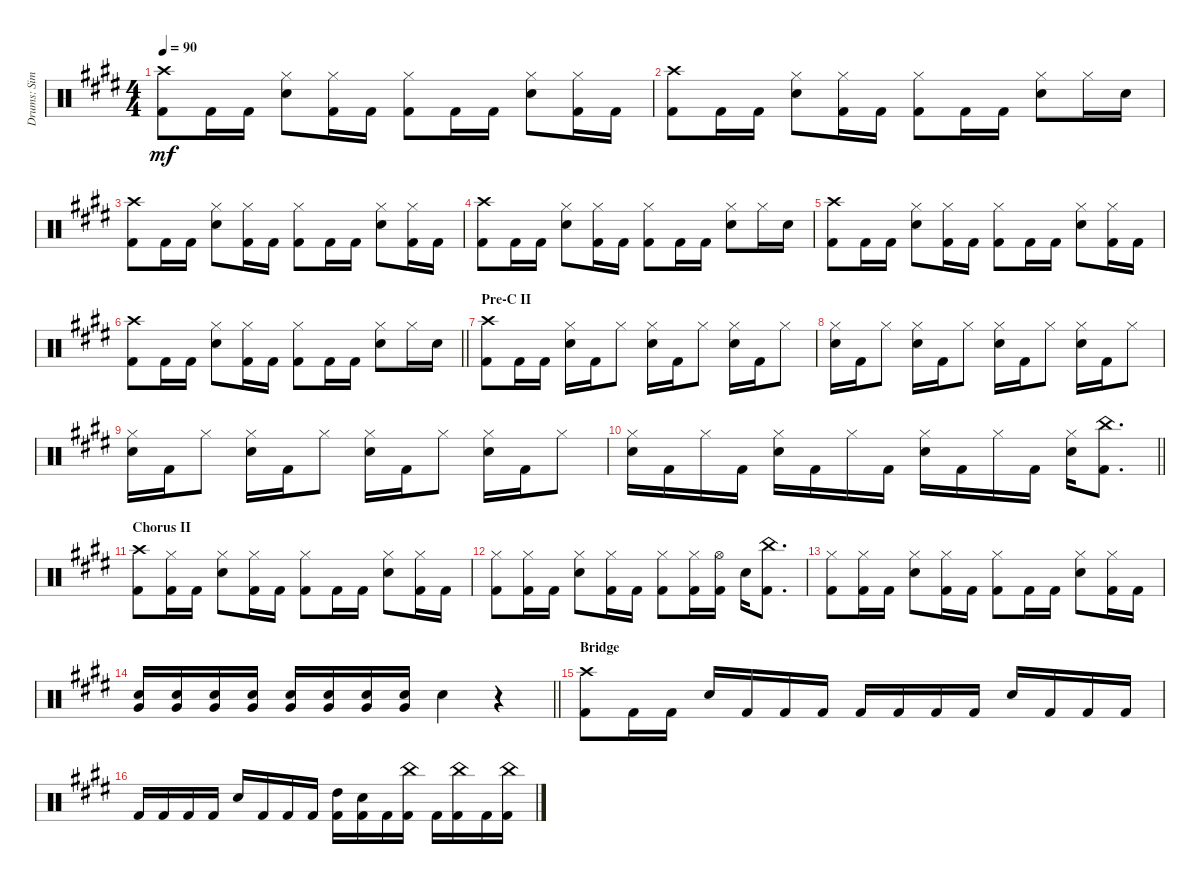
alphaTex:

\track ("Drums: Simon" "Drums: Sim") {instrument percussion}
\staff {score}
\articulation defaults
\ts (4 4)
\tempo 90
\clef neutral
\ks e
("Crash high (hit)" "Kick (hit) 2").8{dy mf} "Kick (hit) 2".16 "Kick (hit) 2".16 ("Hi-Hat (closed)" "Electric Snare (hit)").8 ("Hi-Hat (closed)" "Kick (hit) 2").16 "Kick (hit) 2".16 ("Hi-Hat (closed)" "Kick (hit) 2").8 "Kick (hit) 2".16 "Kick (hit) 2".16 ("Hi-Hat (closed)" "Electric Snare (hit)").8 ("Hi-Hat (closed)" "Kick (hit) 2").16 "Kick (hit) 2".16 |
("Crash high (hit)" "Kick (hit) 2").8 "Kick (hit) 2".16 "Kick (hit) 2".16 ("Hi-Hat (closed)" "Electric Snare (hit)").8 ("Hi-Hat (closed)" "Kick (hit) 2").16 "Kick (hit) 2".16 ("Hi-Hat (closed)" "Kick (hit) 2").8 "Kick (hit) 2".16 "Kick (hit) 2".16 ("Hi-Hat (closed)" "Electric Snare (hit)").8 "Hi-Hat (closed)".16 "Electric Snare (hit)".16 |
("Crash high (hit)" "Kick (hit) 2").8 "Kick (hit) 2".16 "Kick (hit) 2".16 ("Hi-Hat (closed)" "Electric Snare (hit)").8 ("Hi-Hat (closed)" "Kick (hit) 2").16 "Kick (hit) 2".16 ("Hi-Hat (closed)" "Kick (hit) 2").8 "Kick (hit) 2".16 "Kick (hit) 2".16 ("Hi-Hat (closed)" "Electric Snare (hit)").8 ("Hi-Hat (closed)" "Kick (hit) 2").16 "Kick (hit) 2".16 |
("Crash high (hit)" "Kick (hit) 2").8 "Kick (hit) 2".16 "Kick (hit) 2".16 ("Hi-Hat (closed)" "Electric Snare (hit)").8 ("Hi-Hat (closed)" "Kick (hit) 2").16 "Kick (hit) 2".16 ("Hi-Hat (closed)" "Kick (hit) 2").8 "Kick (hit) 2".16 "Kick (hit) 2".16 ("Hi-Hat (closed)" "Electric Snare (hit)").8 "Hi-Hat (closed)".16 "Electric Snare (hit)".16 |
("Crash high (hit)" "Kick (hit) 2").8 "Kick (hit) 2".16 "Kick (hit) 2".16 ("Hi-Hat (closed)" "Electric Snare (hit)").8 ("Hi-Hat (closed)" "Kick (hit) 2").16 "Kick (hit) 2".16 ("Hi-Hat (closed)" "Kick (hit) 2").8 "Kick (hit) 2".16 "Kick (hit) 2".16 ("Hi-Hat (closed)" "Electric Snare (hit)").8 ("Hi-Hat (closed)" "Kick (hit) 2").16 "Kick (hit) 2".16 |
\barLineRight lightlight
("Crash high (hit)" "Kick (hit) 2").8 "Kick (hit) 2".16 "Kick (hit) 2".16 ("Hi-Hat (closed)" "Electric Snare (hit)").8 ("Hi-Hat (closed)" "Kick (hit) 2").16 "Kick (hit) 2".16 ("Hi-Hat (closed)" "Kick (hit) 2").8 "Kick (hit) 2".16 "Kick (hit) 2".16 ("Hi-Hat (closed)" "Electric Snare (hit)").8 "Hi-Hat (closed)".16 "Electric Snare (hit)".16 |
\section ("" "Pre-C II")
("Crash high (hit)" "Kick (hit) 2").8 "Kick (hit) 2".16 "Kick (hit) 2".16 ("Hi-Hat (closed)" "Electric Snare (hit)").16 "Kick (hit) 2".16 "Hi-Hat (closed)".8 ("Hi-Hat (closed)" "Electric Snare (hit)").16 "Kick (hit) 2".16 "Hi-Hat (closed)".8 ("Hi-Hat (closed)" "Electric Snare (hit)").16 "Kick (hit) 2".16 "Hi-Hat (closed)".8 |
("Hi-Hat (closed)" "Electric Snare (hit)").16 "Kick (hit) 2".16 "Hi-Hat (closed)".8 ("Hi-Hat (closed)" "Electric Snare (hit)").16 "Kick (hit) 2".16 "Hi-Hat (closed)".8 ("Hi-Hat (closed)" "Electric Snare (hit)").16 "Kick (hit) 2".16 "Hi-Hat (closed)".8 ("Hi-Hat (closed)" "Electric Snare (hit)").16 "Kick (hit) 2".16 "Hi-Hat (closed)".8 |
("Hi-Hat (closed)" "Electric Snare (hit)").16 "Kick (hit) 2".16 "Hi-Hat (closed)".8 ("Hi-Hat (closed)" "Electric Snare (hit)").16 "Kick (hit) 2".16 "Hi-Hat (closed)".8 ("Hi-Hat (closed)" "Electric Snare (hit)").16 "Kick (hit) 2".16 "Hi-Hat (closed)".8 ("Hi-Hat (closed)" "Electric Snare (hit)").16 "Kick (hit) 2".16 "Hi-Hat (closed)".8 |
\barLineRight lightlight
("Hi-Hat (closed)" "Electric Snare (hit)").16 "Kick (hit) 2".16 "Hi-Hat (closed)".16 "Kick (hit) 2".16 ("Hi-Hat (closed)" "Electric Snare (hit)").16 "Kick (hit) 2".16 "Hi-Hat (closed)".16 "Kick (hit) 2".16 ("Hi-Hat (closed)" "Electric Snare (hit)").16 "Kick (hit) 2".16 "Hi-Hat (closed)".16 "Kick (hit) 2".16 ("Hi-Hat (closed)" "Electric Snare (hit)").16 ("China (hit)" "Kick (hit) 2").8{d} |
\section ("" "Chorus II")
("Crash high (hit)" "Kick (hit) 2").8 ("Hi-Hat (closed)" "Kick (hit) 2").16 "Kick (hit) 2".16 ("Hi-Hat (closed)" "Electric Snare (hit)").8 ("Hi-Hat (closed)" "Kick (hit) 2").16 "Kick (hit) 2".16 ("Hi-Hat (closed)" "Kick (hit) 2").8 "Kick (hit) 2".16 "Kick (hit) 2".16 ("Hi-Hat (closed)" "Electric Snare (hit)").8 ("Hi-Hat (closed)" "Kick (hit) 2").16 "Kick (hit) 2".16 |
("Hi-Hat (closed)" "Kick (hit) 2").8 ("Hi-Hat (closed)" "Kick (hit) 2").16 "Kick (hit) 2".16 ("Hi-Hat (closed)" "Electric Snare (hit)").8 ("Hi-Hat (closed)" "Kick (hit) 2").16 "Kick (hit) 2".16 ("Hi-Hat (closed)" "Kick (hit) 2").8 ("Hi-Hat (closed)" "Kick (hit) 2").16 ("Hi-Hat (open)" "Kick (hit) 2").16 "Electric Snare (hit)".16 ("China (hit)" "Kick (hit) 2").8{d} |
("Hi-Hat (closed)" "Kick (hit) 2").8 ("Hi-Hat (closed)" "Kick (hit) 2").16 "Kick (hit) 2".16 ("Hi-Hat (closed)" "Electric Snare (hit)").8 ("Hi-Hat (closed)" "Kick (hit) 2").16 "Kick (hit) 2".16 ("Hi-Hat (closed)" "Kick (hit) 2").8 "Kick (hit) 2".16 "Kick (hit) 2".16 ("Hi-Hat (closed)" "Electric Snare (hit)").8 ("Hi-Hat (closed)" "Kick (hit) 2").16 "Kick (hit) 2".16 |
\barLineRight lightlight
("Electric Snare (hit)" "Very Low Tom (hit)").16 ("Electric Snare (hit)" "Very Low Tom (hit)").16 ("Electric Snare (hit)" "Very Low Tom (hit)").16 ("Electric Snare (hit)" "Very Low Tom (hit)").16 ("Electric Snare (hit)" "Very Low Tom (hit)").16 ("Electric Snare (hit)" "Very Low Tom (hit)").16 ("Electric Snare (hit)" "Very Low Tom (hit)").16 ("Electric Snare (hit)" "Very Low Tom (hit)").16 "Electric Snare (hit)".4 r.4 |
\section ("" "Bridge")
("Crash high (hit)" "Kick (hit) 2").8 "Kick (hit) 2".16 "Kick (hit) 2".16 "Electric Snare (hit)".16 "Kick (hit) 2".16 "Kick (hit) 2".16 "Kick (hit) 2".16 "Kick (hit) 2".16 "Kick (hit) 2".16 "Kick (hit) 2".16 "Kick (hit) 2".16 "Electric Snare (hit)".16 "Kick (hit) 2".16 "Kick (hit) 2".16 "Kick (hit) 2".16 |
"Kick (hit) 2".16 "Kick (hit) 2".16 "Kick (hit) 2".16 "Kick (hit) 2".16 "Electric Snare (hit)".16 "Kick (hit) 2".16 "Kick (hit) 2".16 "Kick (hit) 2".16 ("High Tom (hit)" "Kick (hit) 2").16 ("Electric Snare (hit)" "Kick (hit) 2").16 "Kick (hit) 2".16 ("China (hit)" "Kick (hit) 2").16 "Kick (hit) 2".16 ("China (hit)" "Kick (hit) 2").16 "Kick (hit) 2".16 ("China (hit)" "Kick (hit) 2").16
